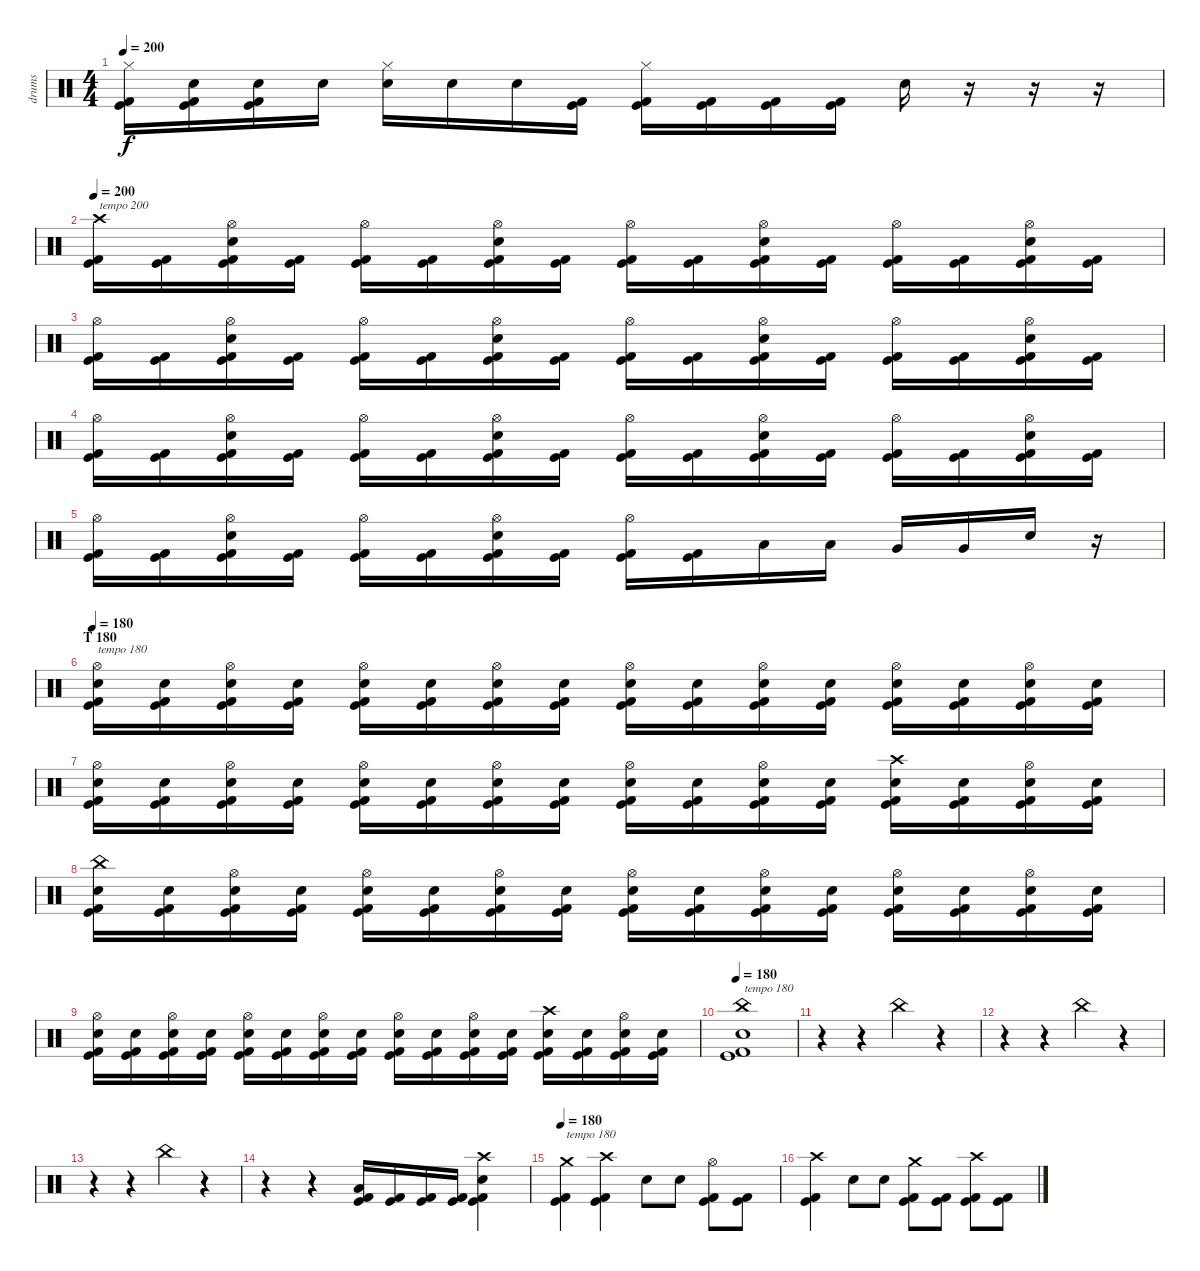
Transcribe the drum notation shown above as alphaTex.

\track ("drums" "drums") {instrument percussion}
\staff {score}
\articulation defaults
\ts (4 4)
\tempo 200
\clef neutral
\ks c
("Hi-Hat (closed)" "Kick (hit) 2" "Kick (hit)").16{dy f} ("Electric Snare (hit)" "Kick (hit) 2" "Kick (hit)").16 ("Electric Snare (hit)" "Kick (hit) 2" "Kick (hit)").16 "Electric Snare (hit)".16 ("Hi-Hat (closed)" "Electric Snare (hit)").16 "Electric Snare (hit)".16 "Electric Snare (hit)".16 ("Kick (hit) 2" "Kick (hit)").16 ("Hi-Hat (closed)" "Kick (hit) 2" "Kick (hit)").16 ("Kick (hit) 2" "Kick (hit)").16 ("Kick (hit) 2" "Kick (hit)").16 ("Kick (hit) 2" "Kick (hit)").16 "Electric Snare (hit)".16 r.16 r.16 r.16 |
\tempo 200
("Crash high (hit)" "Kick (hit) 2" "Kick (hit)").16{txt "tempo 200"} ("Kick (hit) 2" "Kick (hit)").16 ("Hi-Hat (open)" "Electric Snare (hit)" "Kick (hit) 2" "Kick (hit)").16 ("Kick (hit) 2" "Kick (hit)").16 ("Hi-Hat (open)" "Kick (hit) 2" "Kick (hit)").16 ("Kick (hit) 2" "Kick (hit)").16 ("Hi-Hat (open)" "Electric Snare (hit)" "Kick (hit) 2" "Kick (hit)").16 ("Kick (hit) 2" "Kick (hit)").16 ("Hi-Hat (open)" "Kick (hit) 2" "Kick (hit)").16 ("Kick (hit) 2" "Kick (hit)").16 ("Hi-Hat (open)" "Electric Snare (hit)" "Kick (hit) 2" "Kick (hit)").16 ("Kick (hit) 2" "Kick (hit)").16 ("Hi-Hat (open)" "Kick (hit) 2" "Kick (hit)").16 ("Kick (hit) 2" "Kick (hit)").16 ("Hi-Hat (open)" "Electric Snare (hit)" "Kick (hit) 2" "Kick (hit)").16 ("Kick (hit) 2" "Kick (hit)").16 |
("Hi-Hat (open)" "Kick (hit) 2" "Kick (hit)").16 ("Kick (hit) 2" "Kick (hit)").16 ("Hi-Hat (open)" "Electric Snare (hit)" "Kick (hit) 2" "Kick (hit)").16 ("Kick (hit) 2" "Kick (hit)").16 ("Hi-Hat (open)" "Kick (hit) 2" "Kick (hit)").16 ("Kick (hit) 2" "Kick (hit)").16 ("Hi-Hat (open)" "Electric Snare (hit)" "Kick (hit) 2" "Kick (hit)").16 ("Kick (hit) 2" "Kick (hit)").16 ("Hi-Hat (open)" "Kick (hit) 2" "Kick (hit)").16 ("Kick (hit) 2" "Kick (hit)").16 ("Hi-Hat (open)" "Electric Snare (hit)" "Kick (hit) 2" "Kick (hit)").16 ("Kick (hit) 2" "Kick (hit)").16 ("Hi-Hat (open)" "Kick (hit) 2" "Kick (hit)").16 ("Kick (hit) 2" "Kick (hit)").16 ("Hi-Hat (open)" "Electric Snare (hit)" "Kick (hit) 2" "Kick (hit)").16 ("Kick (hit) 2" "Kick (hit)").16 |
("Hi-Hat (open)" "Kick (hit) 2" "Kick (hit)").16 ("Kick (hit) 2" "Kick (hit)").16 ("Hi-Hat (open)" "Electric Snare (hit)" "Kick (hit) 2" "Kick (hit)").16 ("Kick (hit) 2" "Kick (hit)").16 ("Hi-Hat (open)" "Kick (hit) 2" "Kick (hit)").16 ("Kick (hit) 2" "Kick (hit)").16 ("Hi-Hat (open)" "Electric Snare (hit)" "Kick (hit) 2" "Kick (hit)").16 ("Kick (hit) 2" "Kick (hit)").16 ("Hi-Hat (open)" "Kick (hit) 2" "Kick (hit)").16 ("Kick (hit) 2" "Kick (hit)").16 ("Hi-Hat (open)" "Electric Snare (hit)" "Kick (hit) 2" "Kick (hit)").16 ("Kick (hit) 2" "Kick (hit)").16 ("Hi-Hat (open)" "Kick (hit) 2" "Kick (hit)").16 ("Kick (hit) 2" "Kick (hit)").16 ("Hi-Hat (open)" "Electric Snare (hit)" "Kick (hit) 2" "Kick (hit)").16 ("Kick (hit) 2" "Kick (hit)").16 |
("Hi-Hat (open)" "Kick (hit) 2" "Kick (hit)").16 ("Kick (hit) 2" "Kick (hit)").16 ("Hi-Hat (open)" "Electric Snare (hit)" "Kick (hit) 2" "Kick (hit)").16 ("Kick (hit) 2" "Kick (hit)").16 ("Hi-Hat (open)" "Kick (hit) 2" "Kick (hit)").16 ("Kick (hit) 2" "Kick (hit)").16 ("Hi-Hat (open)" "Electric Snare (hit)" "Kick (hit) 2" "Kick (hit)").16 ("Kick (hit) 2" "Kick (hit)").16 ("Hi-Hat (open)" "Kick (hit) 2" "Kick (hit)").16 ("Kick (hit) 2" "Kick (hit)").16 "Low Tom (hit)".16 "Low Tom (hit)".16 "Very Low Tom (hit)".16 "Very Low Tom (hit)".16 "Electric Snare (hit)".16 r.16 |
\section ("" "T 180")
\tempo 180
("Hi-Hat (open)" "Electric Snare (hit)" "Kick (hit) 2" "Kick (hit)").16{txt "tempo 180"} ("Electric Snare (hit)" "Kick (hit) 2" "Kick (hit)").16 ("Hi-Hat (open)" "Electric Snare (hit)" "Kick (hit) 2" "Kick (hit)").16 ("Electric Snare (hit)" "Kick (hit) 2" "Kick (hit)").16 ("Hi-Hat (open)" "Electric Snare (hit)" "Kick (hit) 2" "Kick (hit)").16 ("Electric Snare (hit)" "Kick (hit) 2" "Kick (hit)").16 ("Hi-Hat (open)" "Electric Snare (hit)" "Kick (hit) 2" "Kick (hit)").16 ("Electric Snare (hit)" "Kick (hit) 2" "Kick (hit)").16 ("Hi-Hat (open)" "Electric Snare (hit)" "Kick (hit) 2" "Kick (hit)").16 ("Electric Snare (hit)" "Kick (hit) 2" "Kick (hit)").16 ("Hi-Hat (open)" "Electric Snare (hit)" "Kick (hit) 2" "Kick (hit)").16 ("Electric Snare (hit)" "Kick (hit) 2" "Kick (hit)").16 ("Hi-Hat (open)" "Electric Snare (hit)" "Kick (hit) 2" "Kick (hit)").16 ("Electric Snare (hit)" "Kick (hit) 2" "Kick (hit)").16 ("Hi-Hat (open)" "Electric Snare (hit)" "Kick (hit) 2" "Kick (hit)").16 ("Electric Snare (hit)" "Kick (hit) 2" "Kick (hit)").16 |
("Hi-Hat (open)" "Electric Snare (hit)" "Kick (hit) 2" "Kick (hit)").16 ("Electric Snare (hit)" "Kick (hit) 2" "Kick (hit)").16 ("Hi-Hat (open)" "Electric Snare (hit)" "Kick (hit) 2" "Kick (hit)").16 ("Electric Snare (hit)" "Kick (hit) 2" "Kick (hit)").16 ("Hi-Hat (open)" "Electric Snare (hit)" "Kick (hit) 2" "Kick (hit)").16 ("Electric Snare (hit)" "Kick (hit) 2" "Kick (hit)").16 ("Hi-Hat (open)" "Electric Snare (hit)" "Kick (hit) 2" "Kick (hit)").16 ("Electric Snare (hit)" "Kick (hit) 2" "Kick (hit)").16 ("Hi-Hat (open)" "Electric Snare (hit)" "Kick (hit) 2" "Kick (hit)").16 ("Electric Snare (hit)" "Kick (hit) 2" "Kick (hit)").16 ("Hi-Hat (open)" "Electric Snare (hit)" "Kick (hit) 2" "Kick (hit)").16 ("Electric Snare (hit)" "Kick (hit) 2" "Kick (hit)").16 ("Crash high (hit)" "Electric Snare (hit)" "Kick (hit) 2" "Kick (hit)").16 ("Electric Snare (hit)" "Kick (hit) 2" "Kick (hit)").16 ("Hi-Hat (open)" "Electric Snare (hit)" "Kick (hit) 2" "Kick (hit)").16 ("Electric Snare (hit)" "Kick (hit) 2" "Kick (hit)").16 |
("China (hit)" "Electric Snare (hit)" "Kick (hit) 2" "Kick (hit)").16 ("Electric Snare (hit)" "Kick (hit) 2" "Kick (hit)").16 ("Hi-Hat (open)" "Electric Snare (hit)" "Kick (hit) 2" "Kick (hit)").16 ("Electric Snare (hit)" "Kick (hit) 2" "Kick (hit)").16 ("Hi-Hat (open)" "Electric Snare (hit)" "Kick (hit) 2" "Kick (hit)").16 ("Electric Snare (hit)" "Kick (hit) 2" "Kick (hit)").16 ("Hi-Hat (open)" "Electric Snare (hit)" "Kick (hit) 2" "Kick (hit)").16 ("Electric Snare (hit)" "Kick (hit) 2" "Kick (hit)").16 ("Hi-Hat (open)" "Electric Snare (hit)" "Kick (hit) 2" "Kick (hit)").16 ("Electric Snare (hit)" "Kick (hit) 2" "Kick (hit)").16 ("Hi-Hat (open)" "Electric Snare (hit)" "Kick (hit) 2" "Kick (hit)").16 ("Electric Snare (hit)" "Kick (hit) 2" "Kick (hit)").16 ("Hi-Hat (open)" "Electric Snare (hit)" "Kick (hit) 2" "Kick (hit)").16 ("Electric Snare (hit)" "Kick (hit) 2" "Kick (hit)").16 ("Hi-Hat (open)" "Electric Snare (hit)" "Kick (hit) 2" "Kick (hit)").16 ("Electric Snare (hit)" "Kick (hit) 2" "Kick (hit)").16 |
("Hi-Hat (open)" "Electric Snare (hit)" "Kick (hit) 2" "Kick (hit)").16 ("Electric Snare (hit)" "Kick (hit) 2" "Kick (hit)").16 ("Hi-Hat (open)" "Electric Snare (hit)" "Kick (hit) 2" "Kick (hit)").16 ("Electric Snare (hit)" "Kick (hit) 2" "Kick (hit)").16 ("Hi-Hat (open)" "Electric Snare (hit)" "Kick (hit) 2" "Kick (hit)").16 ("Electric Snare (hit)" "Kick (hit) 2" "Kick (hit)").16 ("Hi-Hat (open)" "Electric Snare (hit)" "Kick (hit) 2" "Kick (hit)").16 ("Electric Snare (hit)" "Kick (hit) 2" "Kick (hit)").16 ("Hi-Hat (open)" "Electric Snare (hit)" "Kick (hit) 2" "Kick (hit)").16 ("Electric Snare (hit)" "Kick (hit) 2" "Kick (hit)").16 ("Hi-Hat (open)" "Electric Snare (hit)" "Kick (hit) 2" "Kick (hit)").16 ("Electric Snare (hit)" "Kick (hit) 2" "Kick (hit)").16 ("Crash high (hit)" "Electric Snare (hit)" "Kick (hit) 2" "Kick (hit)").16 ("Electric Snare (hit)" "Kick (hit) 2" "Kick (hit)").16 ("Hi-Hat (open)" "Electric Snare (hit)" "Kick (hit) 2" "Kick (hit)").16 ("Electric Snare (hit)" "Kick (hit) 2" "Kick (hit)").16 |
\tempo 180
("China (hit)" "Electric Snare (hit)" "Kick (hit) 2" "Kick (hit)").1{txt "tempo 180"} |
r.4 r.4 "China (hit)".4 r.4 |
r.4 r.4 "China (hit)".4 r.4 |
r.4 r.4 "China (hit)".4 r.4 |
r.4 r.4 ("Low Floor Tom (hit)" "Kick (hit) 2" "Kick (hit)").16 ("Kick (hit) 2" "Kick (hit)").16 ("Kick (hit) 2" "Kick (hit)").16 ("Kick (hit) 2" "Kick (hit)").16 ("Crash high (hit)" "Electric Snare (hit)" "Kick (hit) 2" "Kick (hit)").4 |
\tempo 180
("Crash medium (hit)" "Kick (hit) 2" "Kick (hit)").4{txt "tempo 180"} ("Crash high (hit)" "Kick (hit) 2" "Kick (hit)").4 "Electric Snare (hit)".8 "Electric Snare (hit)".8 ("Hi-Hat (open)" "Kick (hit) 2" "Kick (hit)").8 ("Kick (hit) 2" "Kick (hit)").8 |
("Crash high (hit)" "Kick (hit) 2" "Kick (hit)").4 "Electric Snare (hit)".8 "Electric Snare (hit)".8 ("Crash medium (hit)" "Kick (hit) 2" "Kick (hit)").8 ("Kick (hit) 2" "Kick (hit)").8 ("Crash high (hit)" "Kick (hit) 2" "Kick (hit)").8 ("Kick (hit) 2" "Kick (hit)").8
